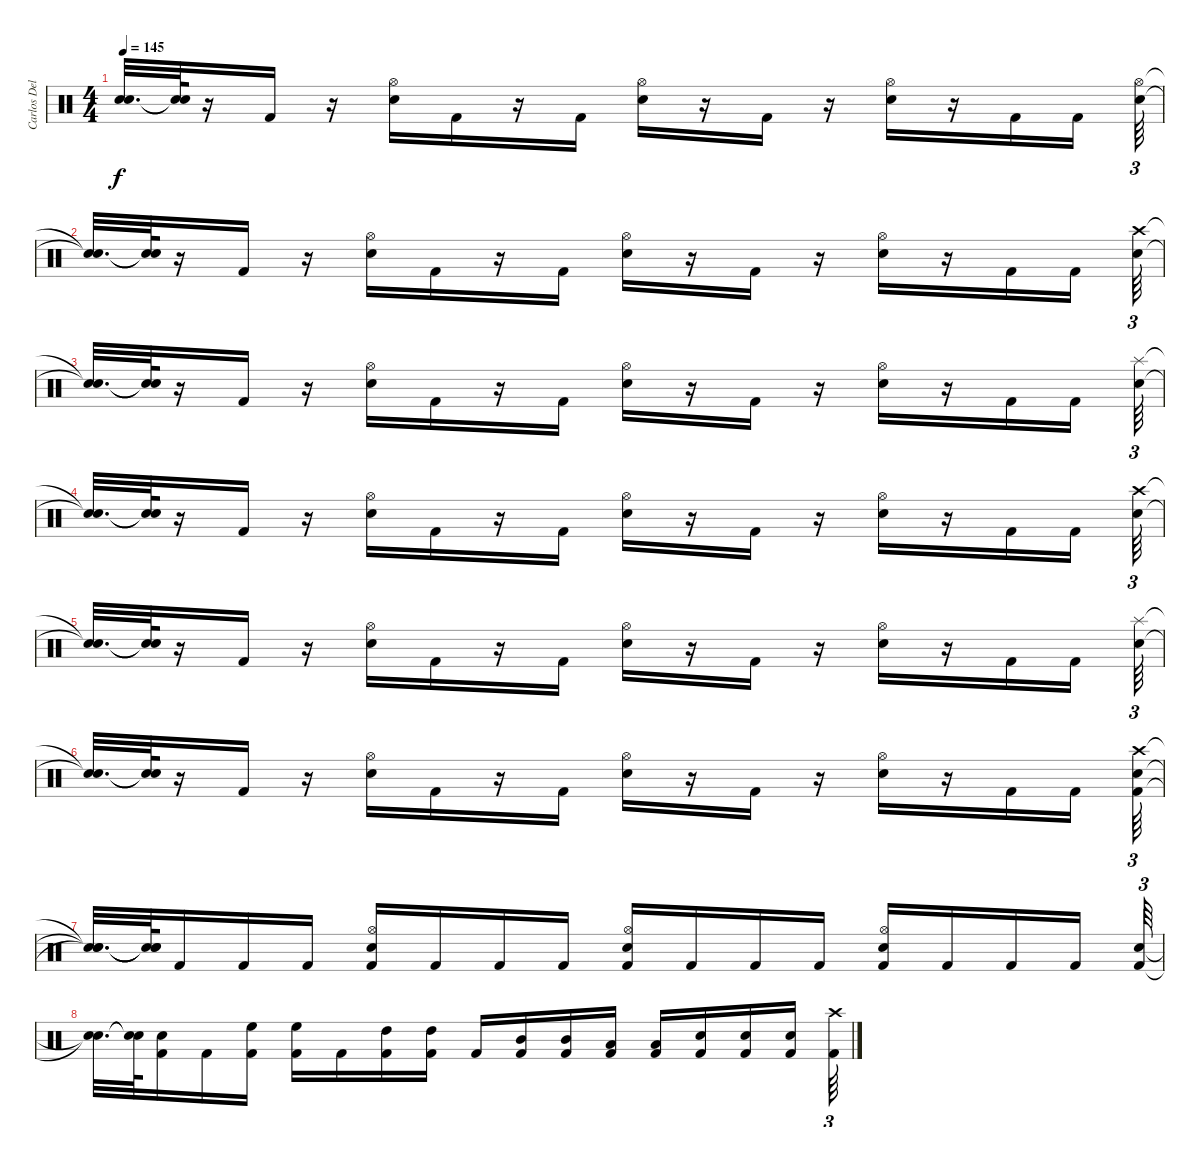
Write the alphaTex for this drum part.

\track ("Carlos Delgado" "Carlos Del") {instrument percussion}
\staff {score}
\articulation defaults
\ts (4 4)
\tempo 145
\clef neutral
\ks c
("Snare (hit)"{t} "Snare (hit)"{t}).32{d dy f} ("Snare (hit)"{t} "Snare (hit)"{t}).64 r.16 "Kick (hit) 2".16 r.16 ("Hi-Hat (open)" "Electric Snare (hit)").16 "Kick (hit) 2".16 r.16 "Kick (hit) 2".16 ("Hi-Hat (open)" "Electric Snare (hit)").16 r.16 "Kick (hit) 2".16 r.16 ("Hi-Hat (open)" "Electric Snare (hit)").16 r.16 "Kick (hit) 2".16 "Kick (hit) 2".16 ("Hi-Hat (open)" "Electric Snare (hit)").64{tu (3 2)} |
("Snare (hit)"{t} "Snare (hit)"{t}).32{d} ("Snare (hit)"{t} "Snare (hit)"{t}).64 r.16 "Kick (hit) 2".16 r.16 ("Hi-Hat (open)" "Electric Snare (hit)").16 "Kick (hit) 2".16 r.16 "Kick (hit) 2".16 ("Hi-Hat (open)" "Electric Snare (hit)").16 r.16 "Kick (hit) 2".16 r.16 ("Hi-Hat (open)" "Electric Snare (hit)").16 r.16 "Kick (hit) 2".16 "Kick (hit) 2".16 ("Crash high (hit)" "Electric Snare (hit)").64{tu (3 2)} |
("Snare (hit)"{t} "Snare (hit)"{t}).32{d} ("Snare (hit)"{t} "Snare (hit)"{t}).64 r.16 "Kick (hit) 2".16 r.16 ("Hi-Hat (open)" "Electric Snare (hit)").16 "Kick (hit) 2".16 r.16 "Kick (hit) 2".16 ("Hi-Hat (open)" "Electric Snare (hit)").16 r.16 "Kick (hit) 2".16 r.16 ("Hi-Hat (open)" "Electric Snare (hit)").16 r.16 "Kick (hit) 2".16 "Kick (hit) 2".16 ("Splash (hit)" "Electric Snare (hit)").64{tu (3 2)} |
("Snare (hit)"{t} "Snare (hit)"{t}).32{d} ("Snare (hit)"{t} "Snare (hit)"{t}).64 r.16 "Kick (hit) 2".16 r.16 ("Hi-Hat (open)" "Electric Snare (hit)").16 "Kick (hit) 2".16 r.16 "Kick (hit) 2".16 ("Hi-Hat (open)" "Electric Snare (hit)").16 r.16 "Kick (hit) 2".16 r.16 ("Hi-Hat (open)" "Electric Snare (hit)").16 r.16 "Kick (hit) 2".16 "Kick (hit) 2".16 ("Crash high (hit)" "Electric Snare (hit)").64{tu (3 2)} |
("Snare (hit)"{t} "Snare (hit)"{t}).32{d} ("Snare (hit)"{t} "Snare (hit)"{t}).64 r.16 "Kick (hit) 2".16 r.16 ("Electric Snare (hit)" "Hi-Hat (open)").16 "Kick (hit) 2".16 r.16 "Kick (hit) 2".16 ("Hi-Hat (open)" "Electric Snare (hit)").16 r.16 "Kick (hit) 2".16 r.16 ("Hi-Hat (open)" "Electric Snare (hit)").16 r.16 "Kick (hit) 2".16 "Kick (hit) 2".16 ("Splash (hit)" "Electric Snare (hit)").64{tu (3 2)} |
("Snare (hit)"{t} "Snare (hit)"{t}).32{d} ("Snare (hit)"{t} "Snare (hit)"{t}).64 r.16 "Kick (hit) 2".16 r.16 ("Hi-Hat (open)" "Electric Snare (hit)").16 "Kick (hit) 2".16 r.16 "Kick (hit) 2".16 ("Electric Snare (hit)" "Hi-Hat (open)").16 r.16 "Kick (hit) 2".16 r.16 ("Electric Snare (hit)" "Hi-Hat (open)").16 r.16 "Kick (hit) 2".16 "Kick (hit) 2".16 ("Crash high (hit)" "Electric Snare (hit)" "Kick (hit) 2").64{tu (3 2)} |
("Snare (hit)"{t} "Snare (hit)"{t} "Snare (hit)"{t}).32{d} ("Snare (hit)"{t} "Snare (hit)"{t} "Snare (hit)"{t}).64 "Kick (hit) 2".16 "Kick (hit) 2".16 "Kick (hit) 2".16 ("Electric Snare (hit)" "Hi-Hat (open)" "Kick (hit) 2").16 "Kick (hit) 2".16 "Kick (hit) 2".16 "Kick (hit) 2".16 ("Hi-Hat (open)" "Electric Snare (hit)" "Kick (hit) 2").16 "Kick (hit) 2".16 "Kick (hit) 2".16 "Kick (hit) 2".16 ("Kick (hit) 2" "Electric Snare (hit)" "Hi-Hat (open)").16 "Kick (hit) 2".16 "Kick (hit) 2".16 "Kick (hit) 2".16 ("Electric Snare (hit)" "Kick (hit) 2").64{tu (3 2)} |
("Snare (hit)"{t} "Snare (hit)"{t}).32{d} ("Snare (hit)"{t} "Snare (hit)"{t}).64 ("Electric Snare (hit)" "Kick (hit) 2").16 "Kick (hit) 2".16 ("Kick (hit) 2" "High Floor Tom (hit)").16 ("Kick (hit) 2" "High Floor Tom (hit)").16 "Kick (hit) 2".16 ("Kick (hit) 2" "High Tom (hit)").16 ("High Tom (hit)" "Kick (hit) 2").16 "Kick (hit) 2".16 ("Kick (hit) 2" "Mid Tom (hit)").16 ("Mid Tom (hit)" "Kick (hit) 2").16 ("Kick (hit) 2" "Low Tom (hit)").16 ("Kick (hit) 2" "Low Tom (hit)").16 ("Kick (hit) 2" "Electric Snare (hit)").16 ("Kick (hit) 2" "Electric Snare (hit)").16 ("Kick (hit) 2" "Electric Snare (hit)").16 ("Crash high (hit)" "Kick (hit) 2").64{tu (3 2)}
